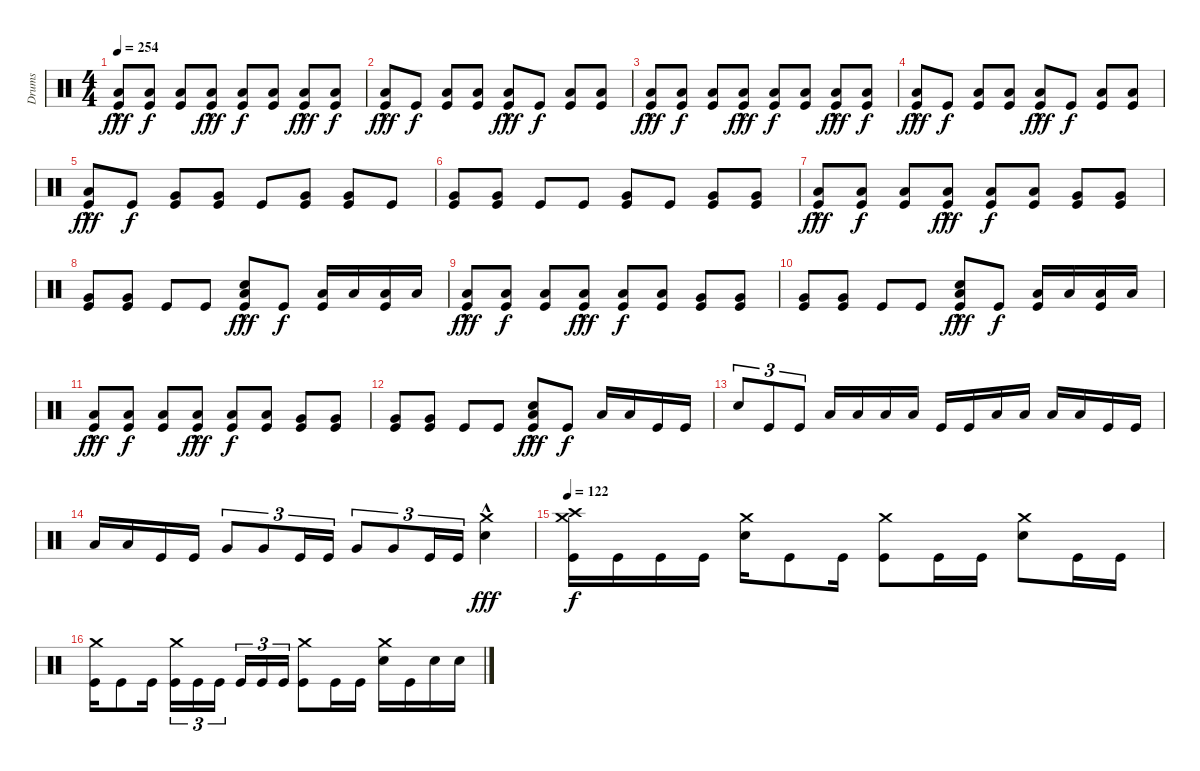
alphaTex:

\track ("Drums" "Drums") {instrument percussion}
\staff {score}
\articulation defaults
\ts (4 4)
\tempo 254
\clef neutral
\ks c
("Kick (hit)" "Low Floor Tom (hit)"{hac}).8{dy fff} ("Kick (hit)" "Low Floor Tom (hit)").8{dy f} ("Kick (hit)" "Low Floor Tom (hit)").8 ("Kick (hit)" "Low Floor Tom (hit)"{hac}).8{dy fff} ("Kick (hit)" "Low Floor Tom (hit)").8{dy f} ("Kick (hit)" "Low Floor Tom (hit)").8 ("Kick (hit)" "Low Floor Tom (hit)"{hac}).8{dy fff} ("Kick (hit)" "Low Floor Tom (hit)").8{dy f} |
("Kick (hit)" "Low Floor Tom (hit)"{hac}).8{dy fff} "Kick (hit)".8{dy f} ("Kick (hit)" "Low Floor Tom (hit)").8 ("Kick (hit)" "Low Floor Tom (hit)").8 ("Kick (hit)" "Low Floor Tom (hit)"{hac}).8{dy fff} "Kick (hit)".8{dy f} ("Kick (hit)" "Low Floor Tom (hit)").8 ("Kick (hit)" "Low Floor Tom (hit)").8 |
("Kick (hit)" "Low Floor Tom (hit)"{hac}).8{dy fff} ("Kick (hit)" "Low Floor Tom (hit)").8{dy f} ("Kick (hit)" "Low Floor Tom (hit)").8 ("Kick (hit)" "Low Floor Tom (hit)"{hac}).8{dy fff} ("Kick (hit)" "Low Floor Tom (hit)").8{dy f} ("Kick (hit)" "Low Floor Tom (hit)").8 ("Kick (hit)" "Low Floor Tom (hit)"{hac}).8{dy fff} ("Kick (hit)" "Low Floor Tom (hit)").8{dy f} |
("Kick (hit)" "Low Floor Tom (hit)"{hac}).8{dy fff} "Kick (hit)".8{dy f} ("Kick (hit)" "Low Floor Tom (hit)").8 ("Kick (hit)" "Low Floor Tom (hit)").8 ("Kick (hit)" "Low Floor Tom (hit)"{hac}).8{dy fff} "Kick (hit)".8{dy f} ("Kick (hit)" "Low Floor Tom (hit)").8 ("Kick (hit)" "Low Floor Tom (hit)").8 |
("Kick (hit)" "Low Floor Tom (hit)"{hac}).8{dy fff} "Kick (hit)".8{dy f} ("Kick (hit)" "Very Low Tom (hit)").8 ("Kick (hit)" "Very Low Tom (hit)").8 "Kick (hit)".8 ("Kick (hit)" "Very Low Tom (hit)").8 ("Kick (hit)" "Very Low Tom (hit)").8 "Kick (hit)".8 |
("Kick (hit)" "Very Low Tom (hit)").8 ("Kick (hit)" "Very Low Tom (hit)").8 "Kick (hit)".8 "Kick (hit)".8 ("Kick (hit)" "Very Low Tom (hit)").8 "Kick (hit)".8 ("Kick (hit)" "Very Low Tom (hit)").8 ("Kick (hit)" "Very Low Tom (hit)").8 |
("Kick (hit)" "Low Floor Tom (hit)"{hac}).8{dy fff} ("Kick (hit)" "Low Floor Tom (hit)").8{dy f} ("Kick (hit)" "Low Floor Tom (hit)").8 ("Kick (hit)" "Low Floor Tom (hit)"{hac}).8{dy fff} ("Kick (hit)" "Low Floor Tom (hit)").8{dy f} ("Kick (hit)" "Low Floor Tom (hit)").8 ("Kick (hit)" "Very Low Tom (hit)").8 ("Kick (hit)" "Very Low Tom (hit)").8 |
("Kick (hit)" "Very Low Tom (hit)").8 ("Kick (hit)" "Very Low Tom (hit)").8 "Kick (hit)".8 "Kick (hit)".8 ("Snare (hit) 2"{hac} "Kick (hit)" "Low Floor Tom (hit)"{hac}).8{dy fff} "Kick (hit)".8{dy f} ("Kick (hit)" "Low Floor Tom (hit)").16 "Low Floor Tom (hit)".16 ("Kick (hit)" "Low Floor Tom (hit)").16 "Low Floor Tom (hit)".16 |
("Kick (hit)" "Low Floor Tom (hit)"{hac}).8{dy fff} ("Kick (hit)" "Low Floor Tom (hit)").8{dy f} ("Kick (hit)" "Low Floor Tom (hit)").8 ("Kick (hit)" "Low Floor Tom (hit)"{hac}).8{dy fff} ("Kick (hit)" "Low Floor Tom (hit)").8{dy f} ("Kick (hit)" "Low Floor Tom (hit)").8 ("Kick (hit)" "Very Low Tom (hit)").8 ("Kick (hit)" "Very Low Tom (hit)").8 |
("Kick (hit)" "Very Low Tom (hit)").8 ("Kick (hit)" "Very Low Tom (hit)").8 "Kick (hit)".8 "Kick (hit)".8 ("Snare (hit) 2"{hac} "Kick (hit)" "Low Floor Tom (hit)"{hac}).8{dy fff} "Kick (hit)".8{dy f} ("Kick (hit)" "Low Floor Tom (hit)").16 "Low Floor Tom (hit)".16 ("Kick (hit)" "Low Floor Tom (hit)").16 "Low Floor Tom (hit)".16 |
("Kick (hit)" "Low Floor Tom (hit)"{hac}).8{dy fff} ("Kick (hit)" "Low Floor Tom (hit)").8{dy f} ("Kick (hit)" "Low Floor Tom (hit)").8 ("Kick (hit)" "Low Floor Tom (hit)"{hac}).8{dy fff} ("Kick (hit)" "Low Floor Tom (hit)").8{dy f} ("Kick (hit)" "Low Floor Tom (hit)").8 ("Kick (hit)" "Very Low Tom (hit)").8 ("Kick (hit)" "Very Low Tom (hit)").8 |
("Kick (hit)" "Very Low Tom (hit)").8 ("Kick (hit)" "Very Low Tom (hit)").8 "Kick (hit)".8 "Kick (hit)".8 ("Snare (hit) 2"{hac} "Kick (hit)" "Low Floor Tom (hit)"{hac}).8{dy fff} "Kick (hit)".8{dy f} "Low Tom (hit)".16 "Low Tom (hit)".16 "Kick (hit)".16 "Kick (hit)".16 |
"Snare (hit) 2".8{tu (3 2)} "Kick (hit)".8{tu (3 2)} "Kick (hit)".8{tu (3 2)} "Low Tom (hit)".16 "Low Tom (hit)".16 "Low Tom (hit)".16 "Low Tom (hit)".16 "Kick (hit)".16 "Kick (hit)".16 "Low Tom (hit)".16 "Low Tom (hit)".16 "Low Tom (hit)".16 "Low Tom (hit)".16 "Kick (hit)".16 "Kick (hit)".16 |
"Low Tom (hit)".16 "Low Tom (hit)".16 "Kick (hit)".16 "Kick (hit)".16 "Very Low Tom (hit)".8{tu (3 2)} "Very Low Tom (hit)".8{tu (3 2)} "Kick (hit)".16{tu (3 2)} "Kick (hit)".16{tu (3 2)} "Very Low Tom (hit)".8{tu (3 2)} "Very Low Tom (hit)".8{tu (3 2)} "Kick (hit)".16{tu (3 2)} "Kick (hit)".16{tu (3 2)} ("Snare (hit) 2"{hac} "Crash medium (hit)").4{dy fff} |
\tempo 122
("Crash high (hit)" "Kick (hit)" "Crash medium (hit)").16{dy f} "Kick (hit)".16 "Kick (hit)".16 "Kick (hit)".16 ("Snare (hit) 2" "Crash medium (hit)").16 "Kick (hit)".8 "Kick (hit)".16 ("Kick (hit)" "Crash medium (hit)").8 "Kick (hit)".16 "Kick (hit)".16 ("Snare (hit) 2" "Crash medium (hit)").8 "Kick (hit)".16 "Kick (hit)".16 |
("Kick (hit)" "Crash medium (hit)").16 "Kick (hit)".8 "Kick (hit)".16 ("Kick (hit)" "Crash medium (hit)").16{tu (3 2)} "Kick (hit)".16{tu (3 2)} "Kick (hit)".16{tu (3 2) beam splitsecondary} "Kick (hit)".16{tu (3 2)} "Kick (hit)".16{tu (3 2)} "Kick (hit)".16{tu (3 2)} ("Kick (hit)" "Crash medium (hit)").8 "Kick (hit)".16 "Kick (hit)".16 ("Snare (hit) 2" "Crash medium (hit)").16 "Kick (hit)".16 "Snare (hit) 2".16 "Snare (hit) 2".16
